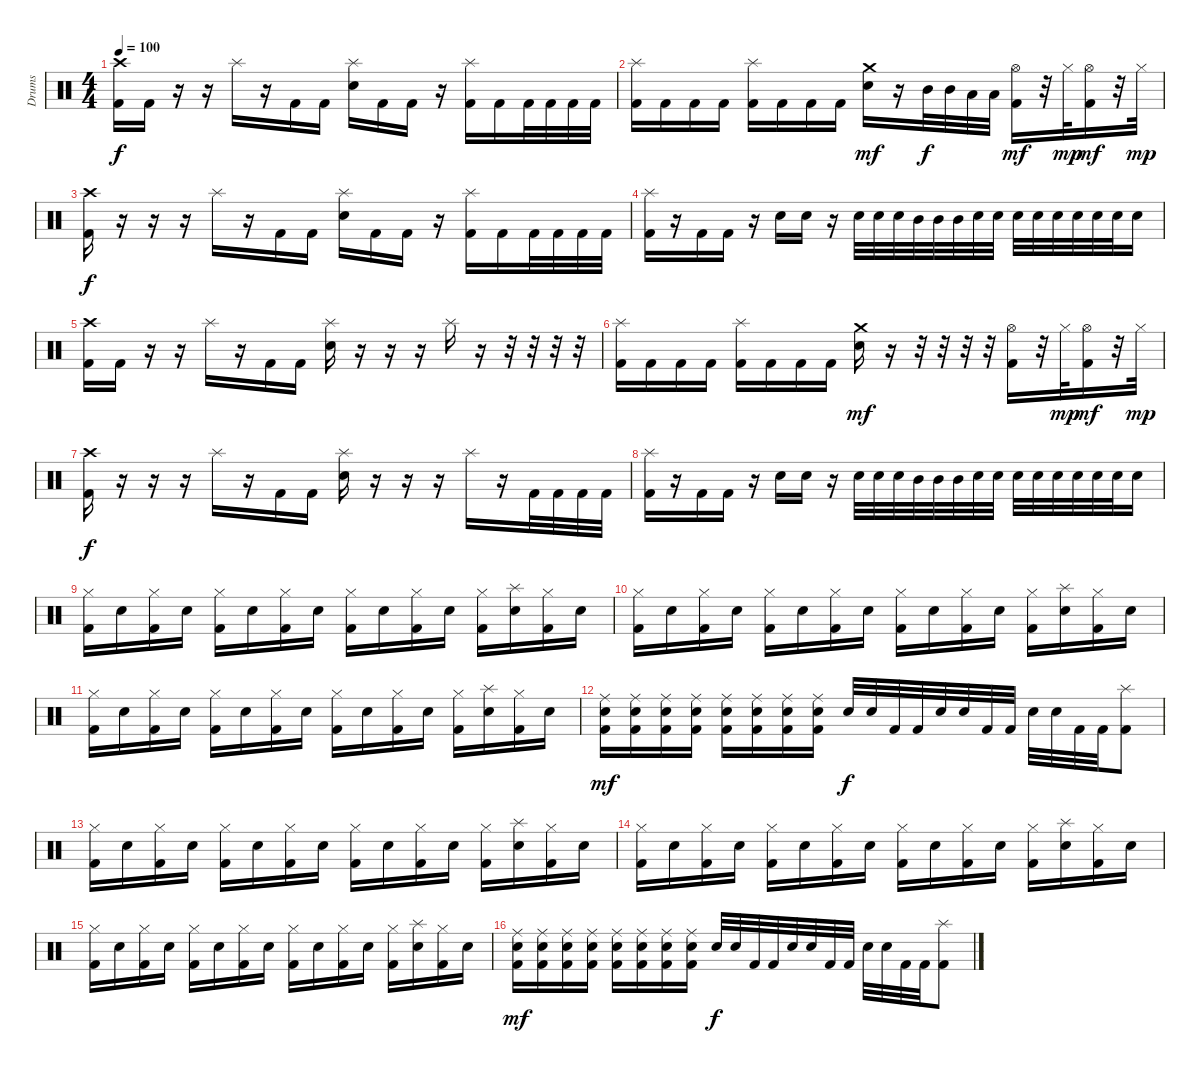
\track ("Drums" "Drums") {instrument percussion}
\staff {score}
\articulation defaults
\ts (4 4)
\tempo 100
\clef neutral
\ks c
("Kick (hit) 2" "Crash high (hit)").16{dy f} "Kick (hit) 2".16 r.16 r.16 "Splash (hit)".16 r.16 "Kick (hit) 2".16 "Kick (hit) 2".16 ("Electric Snare (hit)" "Splash (hit)").16 "Kick (hit) 2".16 "Kick (hit) 2".16 r.16 ("Kick (hit) 2" "Splash (hit)").16 "Kick (hit) 2".16 "Kick (hit) 2".32 "Kick (hit) 2".32 "Kick (hit) 2".32 "Kick (hit) 2".32 |
("Kick (hit) 2" "Splash (hit)").16 "Kick (hit) 2".16 "Kick (hit) 2".16 "Kick (hit) 2".16 ("Kick (hit) 2" "Splash (hit)").16 "Kick (hit) 2".16 "Kick (hit) 2".16 "Kick (hit) 2".16 ("Electric Snare (hit)" "Crash medium (hit)").16{dy mf} r.16 "Mid Tom (hit)".32{dy f} "Mid Tom (hit)".32 "Low Tom (hit)".32 "Low Tom (hit)".32 ("Hi-Hat (open)" "Kick (hit) 2").16{dy mf} r.32 "Hi-Hat (closed)".32{dy mp} ("Hi-Hat (open)" "Kick (hit) 2").16{dy mf} r.32 "Hi-Hat (closed)".32{dy mp} |
("Kick (hit) 2" "Crash high (hit)").16{dy f} r.16 r.16 r.16 "Splash (hit)".16 r.16 "Kick (hit) 2".16 "Kick (hit) 2".16 ("Electric Snare (hit)" "Splash (hit)").16 "Kick (hit) 2".16 "Kick (hit) 2".16 r.16 ("Kick (hit) 2" "Splash (hit)").16 "Kick (hit) 2".16 "Kick (hit) 2".32 "Kick (hit) 2".32 "Kick (hit) 2".32 "Kick (hit) 2".32 |
("Kick (hit) 2" "Splash (hit)").16 r.16 "Kick (hit) 2".16 "Kick (hit) 2".16 r.16 "Electric Snare (hit)".16 "Electric Snare (hit)".16 r.16 "Electric Snare (hit)".32 "Electric Snare (hit)".32 "Electric Snare (hit)".32 "Mid Tom (hit)".32 "Mid Tom (hit)".32 "Mid Tom (hit)".32 "Electric Snare (hit)".32 "Electric Snare (hit)".32 "Electric Snare (hit)".32 "Electric Snare (hit)".32 "Electric Snare (hit)".32 "Electric Snare (hit)".32 "Electric Snare (hit)".32 "Electric Snare (hit)".32 "Electric Snare (hit)".16 |
("Kick (hit) 2" "Crash high (hit)").16 "Kick (hit) 2".16 r.16 r.16 "Splash (hit)".16 r.16 "Kick (hit) 2".16 "Kick (hit) 2".16 ("Electric Snare (hit)" "Splash (hit)").16 r.16 r.16 r.16 "Splash (hit)".16 r.16 r.32 r.32 r.32 r.32 |
("Kick (hit) 2" "Splash (hit)").16 "Kick (hit) 2".16 "Kick (hit) 2".16 "Kick (hit) 2".16 ("Kick (hit) 2" "Splash (hit)").16 "Kick (hit) 2".16 "Kick (hit) 2".16 "Kick (hit) 2".16 ("Electric Snare (hit)" "Crash medium (hit)").16{dy mf} r.16 r.32 r.32 r.32 r.32 ("Hi-Hat (open)" "Kick (hit) 2").16 r.32 "Hi-Hat (closed)".32{dy mp} ("Hi-Hat (open)" "Kick (hit) 2").16{dy mf} r.32 "Hi-Hat (closed)".32{dy mp} |
("Kick (hit) 2" "Crash high (hit)").16{dy f} r.16 r.16 r.16 "Splash (hit)".16 r.16 "Kick (hit) 2".16 "Kick (hit) 2".16 ("Electric Snare (hit)" "Splash (hit)").16 r.16 r.16 r.16 "Splash (hit)".16 r.16 "Kick (hit) 2".32 "Kick (hit) 2".32 "Kick (hit) 2".32 "Kick (hit) 2".32 |
("Kick (hit) 2" "Splash (hit)").16 r.16 "Kick (hit) 2".16 "Kick (hit) 2".16 r.16 "Electric Snare (hit)".16 "Electric Snare (hit)".16 r.16 "Electric Snare (hit)".32 "Electric Snare (hit)".32 "Electric Snare (hit)".32 "Mid Tom (hit)".32 "Mid Tom (hit)".32 "Mid Tom (hit)".32 "Electric Snare (hit)".32 "Electric Snare (hit)".32 "Electric Snare (hit)".32 "Electric Snare (hit)".32 "Electric Snare (hit)".32 "Electric Snare (hit)".32 "Electric Snare (hit)".32 "Electric Snare (hit)".32 "Electric Snare (hit)".16 |
("Kick (hit) 2" "Hi-Hat (closed)").16 "Electric Snare (hit)".16 ("Kick (hit) 2" "Hi-Hat (closed)").16 "Electric Snare (hit)".16 ("Kick (hit) 2" "Hi-Hat (closed)").16 "Electric Snare (hit)".16 ("Kick (hit) 2" "Hi-Hat (closed)").16 "Electric Snare (hit)".16 ("Kick (hit) 2" "Hi-Hat (closed)").16 "Electric Snare (hit)".16 ("Kick (hit) 2" "Hi-Hat (closed)").16 "Electric Snare (hit)".16 ("Kick (hit) 2" "Hi-Hat (closed)").16 ("Electric Snare (hit)" "Splash (hit)").16 ("Kick (hit) 2" "Hi-Hat (closed)").16 "Electric Snare (hit)".16 |
("Kick (hit) 2" "Hi-Hat (closed)").16 "Electric Snare (hit)".16 ("Kick (hit) 2" "Hi-Hat (closed)").16 "Electric Snare (hit)".16 ("Kick (hit) 2" "Hi-Hat (closed)").16 "Electric Snare (hit)".16 ("Kick (hit) 2" "Hi-Hat (closed)").16 "Electric Snare (hit)".16 ("Kick (hit) 2" "Hi-Hat (closed)").16 "Electric Snare (hit)".16 ("Kick (hit) 2" "Hi-Hat (closed)").16 "Electric Snare (hit)".16 ("Kick (hit) 2" "Hi-Hat (closed)").16 ("Electric Snare (hit)" "Splash (hit)").16 ("Kick (hit) 2" "Hi-Hat (closed)").16 "Electric Snare (hit)".16 |
("Kick (hit) 2" "Hi-Hat (closed)").16 "Electric Snare (hit)".16 ("Kick (hit) 2" "Hi-Hat (closed)").16 "Electric Snare (hit)".16 ("Kick (hit) 2" "Hi-Hat (closed)").16 "Electric Snare (hit)".16 ("Kick (hit) 2" "Hi-Hat (closed)").16 "Electric Snare (hit)".16 ("Kick (hit) 2" "Hi-Hat (closed)").16 "Electric Snare (hit)".16 ("Kick (hit) 2" "Hi-Hat (closed)").16 "Electric Snare (hit)".16 ("Kick (hit) 2" "Hi-Hat (closed)").16 ("Electric Snare (hit)" "Splash (hit)").16 ("Kick (hit) 2" "Hi-Hat (closed)").16 "Electric Snare (hit)".16 |
("Electric Snare (hit)" "Ride (middle)" "Kick (hit) 2").16{dy mf} ("Electric Snare (hit)" "Ride (middle)" "Kick (hit) 2").16 ("Electric Snare (hit)" "Ride (middle)" "Kick (hit) 2").16 ("Electric Snare (hit)" "Ride (middle)" "Kick (hit) 2").16 ("Electric Snare (hit)" "Ride (middle)" "Kick (hit) 2").16 ("Electric Snare (hit)" "Ride (middle)" "Kick (hit) 2").16 ("Electric Snare (hit)" "Ride (middle)" "Kick (hit) 2").16 ("Electric Snare (hit)" "Ride (middle)" "Kick (hit) 2").16 "Electric Snare (hit)".32{dy f} "Electric Snare (hit)".32 "Kick (hit) 2".32 "Kick (hit) 2".32 "Electric Snare (hit)".32 "Electric Snare (hit)".32 "Kick (hit) 2".32 "Kick (hit) 2".32 "Electric Snare (hit)".32 "Electric Snare (hit)".32 "Kick (hit) 2".32 "Kick (hit) 2".32 ("Kick (hit) 2" "Splash (hit)").8 |
("Kick (hit) 2" "Hi-Hat (closed)").16 "Electric Snare (hit)".16 ("Kick (hit) 2" "Hi-Hat (closed)").16 "Electric Snare (hit)".16 ("Kick (hit) 2" "Hi-Hat (closed)").16 "Electric Snare (hit)".16 ("Kick (hit) 2" "Hi-Hat (closed)").16 "Electric Snare (hit)".16 ("Kick (hit) 2" "Hi-Hat (closed)").16 "Electric Snare (hit)".16 ("Kick (hit) 2" "Hi-Hat (closed)").16 "Electric Snare (hit)".16 ("Kick (hit) 2" "Hi-Hat (closed)").16 ("Electric Snare (hit)" "Splash (hit)").16 ("Kick (hit) 2" "Hi-Hat (closed)").16 "Electric Snare (hit)".16 |
("Kick (hit) 2" "Hi-Hat (closed)").16 "Electric Snare (hit)".16 ("Kick (hit) 2" "Hi-Hat (closed)").16 "Electric Snare (hit)".16 ("Kick (hit) 2" "Hi-Hat (closed)").16 "Electric Snare (hit)".16 ("Kick (hit) 2" "Hi-Hat (closed)").16 "Electric Snare (hit)".16 ("Kick (hit) 2" "Hi-Hat (closed)").16 "Electric Snare (hit)".16 ("Kick (hit) 2" "Hi-Hat (closed)").16 "Electric Snare (hit)".16 ("Kick (hit) 2" "Hi-Hat (closed)").16 ("Electric Snare (hit)" "Splash (hit)").16 ("Kick (hit) 2" "Hi-Hat (closed)").16 "Electric Snare (hit)".16 |
("Kick (hit) 2" "Hi-Hat (closed)").16 "Electric Snare (hit)".16 ("Kick (hit) 2" "Hi-Hat (closed)").16 "Electric Snare (hit)".16 ("Kick (hit) 2" "Hi-Hat (closed)").16 "Electric Snare (hit)".16 ("Kick (hit) 2" "Hi-Hat (closed)").16 "Electric Snare (hit)".16 ("Kick (hit) 2" "Hi-Hat (closed)").16 "Electric Snare (hit)".16 ("Kick (hit) 2" "Hi-Hat (closed)").16 "Electric Snare (hit)".16 ("Kick (hit) 2" "Hi-Hat (closed)").16 ("Electric Snare (hit)" "Splash (hit)").16 ("Kick (hit) 2" "Hi-Hat (closed)").16 "Electric Snare (hit)".16 |
("Electric Snare (hit)" "Ride (middle)" "Kick (hit) 2").16{dy mf} ("Electric Snare (hit)" "Ride (middle)" "Kick (hit) 2").16 ("Electric Snare (hit)" "Ride (middle)" "Kick (hit) 2").16 ("Electric Snare (hit)" "Ride (middle)" "Kick (hit) 2").16 ("Electric Snare (hit)" "Ride (middle)" "Kick (hit) 2").16 ("Electric Snare (hit)" "Ride (middle)" "Kick (hit) 2").16 ("Electric Snare (hit)" "Ride (middle)" "Kick (hit) 2").16 ("Electric Snare (hit)" "Ride (middle)" "Kick (hit) 2").16 "Electric Snare (hit)".32{dy f} "Electric Snare (hit)".32 "Kick (hit) 2".32 "Kick (hit) 2".32 "Electric Snare (hit)".32 "Electric Snare (hit)".32 "Kick (hit) 2".32 "Kick (hit) 2".32 "Electric Snare (hit)".32 "Electric Snare (hit)".32 "Kick (hit) 2".32 "Kick (hit) 2".32 ("Kick (hit) 2" "Splash (hit)").8
